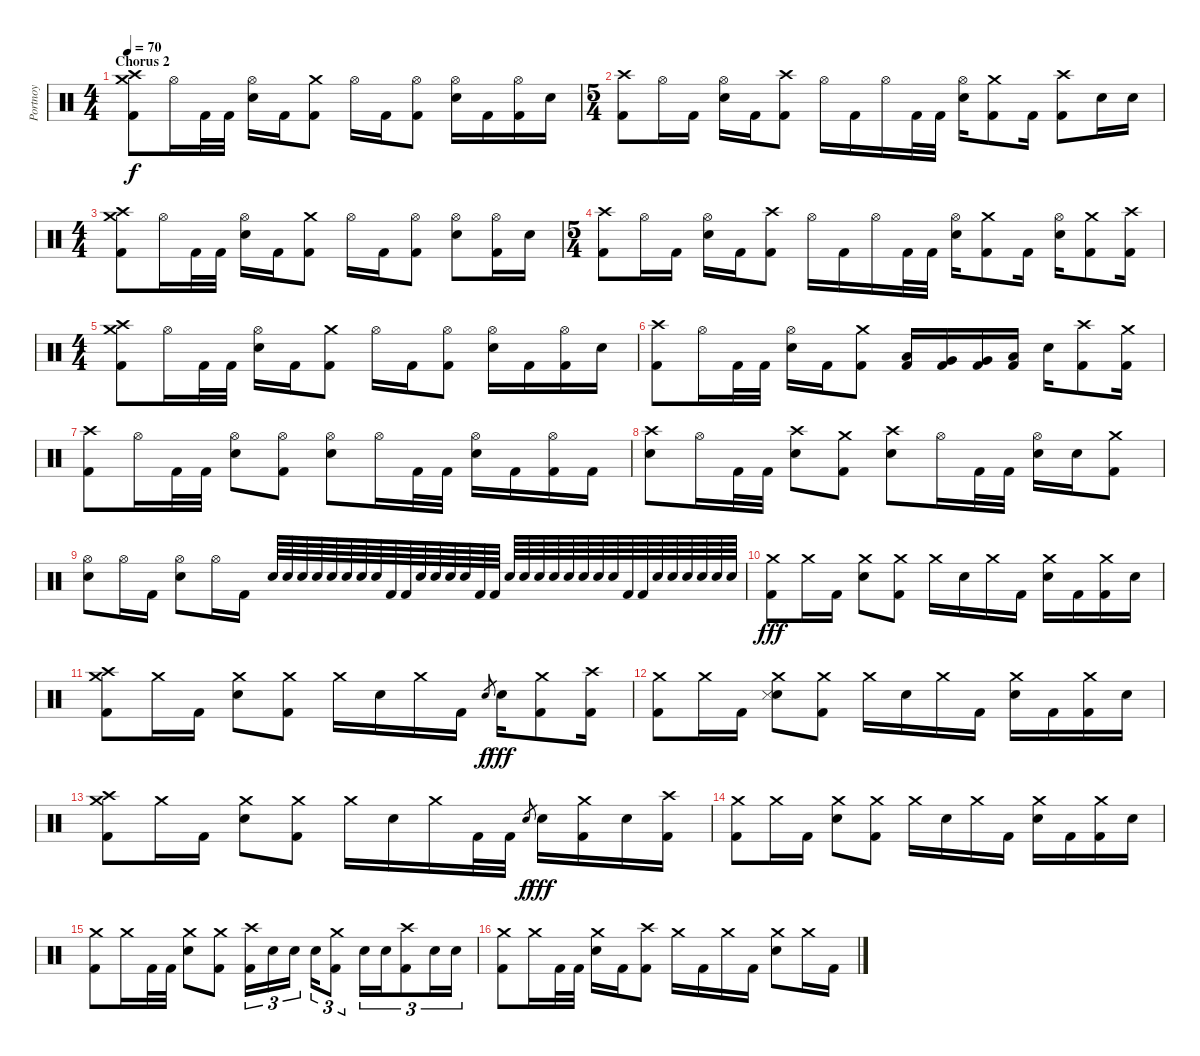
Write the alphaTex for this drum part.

\track ("Portnoy" "Portnoy") {instrument percussion}
\staff {score}
\articulation defaults
\ts (4 4)
\section ("" "Chorus 2")
\tempo 70
\clef neutral
\ks c
("Crash medium (hit)" "Crash high (hit)" "Kick (hit) 2").8{dy f} "Hi-Hat (open)".16 "Kick (hit) 2".32 "Kick (hit) 2".32 ("Hi-Hat (open)" "Snare (hit) 2").16 "Kick (hit) 2".16 ("Crash medium (hit)" "Kick (hit) 2").8 "Hi-Hat (open)".16 "Kick (hit) 2".16 ("Kick (hit) 2" "Hi-Hat (open)").8 ("Hi-Hat (open)" "Snare (hit) 2").16 "Kick (hit) 2".16 ("Kick (hit) 2" "Hi-Hat (open)").16 "Snare (hit) 2".16 |
\ts (5 4)
("Crash high (hit)" "Kick (hit) 2").8 "Hi-Hat (open)".16 "Kick (hit) 2".16 ("Hi-Hat (open)" "Snare (hit) 2").16 "Kick (hit) 2".16 ("Crash high (hit)" "Kick (hit) 2").8 "Hi-Hat (open)".16 "Kick (hit) 2".16 "Hi-Hat (open)".16 "Kick (hit) 2".32 "Kick (hit) 2".32 ("Hi-Hat (open)" "Snare (hit) 2").16 ("Kick (hit) 2" "Crash medium (hit)").8 "Kick (hit) 2".16 ("Crash high (hit)" "Kick (hit) 2").8 "Snare (hit) 2".16 "Snare (hit) 2".16 |
\ts (4 4)
("Crash medium (hit)" "Crash high (hit)" "Kick (hit) 2").8 "Hi-Hat (open)".16 "Kick (hit) 2".32 "Kick (hit) 2".32 ("Hi-Hat (open)" "Snare (hit) 2").16 "Kick (hit) 2".16 ("Crash medium (hit)" "Kick (hit) 2").8 "Hi-Hat (open)".16 "Kick (hit) 2".16 ("Kick (hit) 2" "Hi-Hat (open)").8 ("Hi-Hat (open)" "Snare (hit) 2").8 ("Kick (hit) 2" "Hi-Hat (open)").16 "Snare (hit) 2".16 |
\ts (5 4)
("Crash high (hit)" "Kick (hit) 2").8 "Hi-Hat (open)".16 "Kick (hit) 2".16 ("Hi-Hat (open)" "Snare (hit) 2").16 "Kick (hit) 2".16 ("Crash high (hit)" "Kick (hit) 2").8 "Hi-Hat (open)".16 "Kick (hit) 2".16 "Hi-Hat (open)".16 "Kick (hit) 2".32 "Kick (hit) 2".32 ("Hi-Hat (open)" "Snare (hit) 2").16 ("Kick (hit) 2" "Crash medium (hit)").8 "Kick (hit) 2".16 ("Hi-Hat (open)" "Snare (hit) 2").16 ("Kick (hit) 2" "Crash medium (hit)").8 ("Kick (hit) 2" "Crash high (hit)").16 |
\ts (4 4)
("Crash medium (hit)" "Crash high (hit)" "Kick (hit) 2").8 "Hi-Hat (open)".16 "Kick (hit) 2".32 "Kick (hit) 2".32 ("Hi-Hat (open)" "Snare (hit) 2").16 "Kick (hit) 2".16 ("Crash medium (hit)" "Kick (hit) 2").8 "Hi-Hat (open)".16 "Kick (hit) 2".16 ("Kick (hit) 2" "Hi-Hat (open)").8 ("Hi-Hat (open)" "Snare (hit) 2").16 "Kick (hit) 2".16 ("Kick (hit) 2" "Hi-Hat (open)").16 "Snare (hit) 2".16 |
("Crash high (hit)" "Kick (hit) 2").8 "Hi-Hat (open)".16 "Kick (hit) 2".32 "Kick (hit) 2".32 ("Hi-Hat (open)" "Snare (hit) 2").16 "Kick (hit) 2".16 ("Crash medium (hit)" "Kick (hit) 2").8 ("Low Tom (hit)" "Kick (hit) 2").16 ("Kick (hit) 2" "Very Low Tom (hit)").16 ("Kick (hit) 2" "Very Low Tom (hit)").16 ("Kick (hit) 2" "Low Floor Tom (hit)").16 "Snare (hit) 2".16 ("Crash high (hit)" "Kick (hit) 2").8 ("Crash medium (hit)" "Kick (hit) 2").16 |
("Crash high (hit)" "Kick (hit) 2").8 "Hi-Hat (open)".16 "Kick (hit) 2".32 "Kick (hit) 2".32 ("Hi-Hat (open)" "Snare (hit) 2").8 ("Hi-Hat (open)" "Kick (hit) 2").8 ("Hi-Hat (open)" "Snare (hit) 2").8 "Hi-Hat (open)".16 "Kick (hit) 2".32 "Kick (hit) 2".32 ("Hi-Hat (open)" "Snare (hit) 2").16 "Kick (hit) 2".16 ("Hi-Hat (open)" "Kick (hit) 2").16 "Kick (hit) 2".16 |
("Crash high (hit)" "Snare (hit) 2").8 "Hi-Hat (open)".16 "Kick (hit) 2".32 "Kick (hit) 2".32 ("Crash high (hit)" "Snare (hit) 2").8 ("Crash medium (hit)" "Kick (hit) 2").8 ("Crash high (hit)" "Snare (hit) 2").8 "Hi-Hat (open)".16 "Kick (hit) 2".32 "Kick (hit) 2".32 ("Hi-Hat (open)" "Snare (hit) 2").16 "Snare (hit) 2".16 ("Crash medium (hit)" "Kick (hit) 2").8 |
("Hi-Hat (open)" "Snare (hit) 2").8 "Hi-Hat (open)".16 "Kick (hit) 2".16 ("Hi-Hat (open)" "Snare (hit) 2").8 "Hi-Hat (open)".16 "Kick (hit) 2".16 "Snare (hit) 2".64 "Snare (hit) 2".64 "Snare (hit) 2".64 "Snare (hit) 2".64 "Snare (hit) 2".64 "Snare (hit) 2".64 "Snare (hit) 2".64 "Snare (hit) 2".64 "Kick (hit) 2".64 "Kick (hit) 2".64 "Snare (hit) 2".64 "Snare (hit) 2".64 "Snare (hit) 2".64 "Snare (hit) 2".64 "Kick (hit) 2".64 "Kick (hit) 2".64 "Snare (hit) 2".64 "Snare (hit) 2".64 "Snare (hit) 2".64 "Snare (hit) 2".64 "Snare (hit) 2".64 "Snare (hit) 2".64 "Snare (hit) 2".64 "Snare (hit) 2".64 "Kick (hit) 2".64 "Kick (hit) 2".64 "Snare (hit) 2".64 "Snare (hit) 2".64 "Snare (hit) 2".64 "Snare (hit) 2".64 "Snare (hit) 2".64 "Snare (hit) 2".64 |
("Crash medium (hit)" "Kick (hit) 2").8{dy fff} "Crash medium (hit)".16 "Kick (hit) 2".16 ("Crash medium (hit)" "Snare (hit) 2").8 ("Crash medium (hit)" "Kick (hit) 2").8 "Crash medium (hit)".16 "Snare (hit) 2".16 "Crash medium (hit)".16 "Kick (hit) 2".16 ("Crash medium (hit)" "Snare (hit) 2").16 "Kick (hit) 2".16 ("Kick (hit) 2" "Crash medium (hit)").16 "Snare (hit) 2".16 |
("Crash medium (hit)" "Kick (hit) 2" "Crash high (hit)").8 "Crash medium (hit)".16 "Kick (hit) 2".16 ("Crash medium (hit)" "Snare (hit) 2").8 ("Crash medium (hit)" "Kick (hit) 2").8 "Crash medium (hit)".16 "Snare (hit) 2".16 "Crash medium (hit)".16 "Kick (hit) 2".16 "Snare (hit) 2".8{gr dy f} "Snare (hit) 2".16{dy fff} ("Crash medium (hit)" "Kick (hit) 2").8 ("Crash high (hit)" "Kick (hit) 2").16 |
("Crash medium (hit)" "Kick (hit) 2").8 "Crash medium (hit)".16 "Kick (hit) 2".16 ("Crash medium (hit)" "Snare (hit) 2" "Snare (side stick) 3").8 ("Crash medium (hit)" "Kick (hit) 2").8 "Crash medium (hit)".16 "Snare (hit) 2".16 "Crash medium (hit)".16 "Kick (hit) 2".16 ("Crash medium (hit)" "Snare (hit) 2").16 "Kick (hit) 2".16 ("Kick (hit) 2" "Crash medium (hit)").16 "Snare (hit) 2".16 |
("Crash medium (hit)" "Kick (hit) 2" "Crash high (hit)").8 "Crash medium (hit)".16 "Kick (hit) 2".16 ("Crash medium (hit)" "Snare (hit) 2").8 ("Crash medium (hit)" "Kick (hit) 2").8 "Crash medium (hit)".16 "Snare (hit) 2".16 "Crash medium (hit)".16 "Kick (hit) 2".32 "Kick (hit) 2".32 "Snare (hit) 2".8{gr dy f} "Snare (hit) 2".16{dy fff} ("Crash medium (hit)" "Kick (hit) 2").16 "Snare (hit) 2".16 ("Crash high (hit)" "Kick (hit) 2").16 |
("Crash medium (hit)" "Kick (hit) 2").8 "Crash medium (hit)".16 "Kick (hit) 2".16 ("Crash medium (hit)" "Snare (hit) 2").8 ("Crash medium (hit)" "Kick (hit) 2").8 "Crash medium (hit)".16 "Snare (hit) 2".16 "Crash medium (hit)".16 "Kick (hit) 2".16 ("Crash medium (hit)" "Snare (hit) 2").16 "Kick (hit) 2".16 ("Kick (hit) 2" "Crash medium (hit)").16 "Snare (hit) 2".16 |
("Crash medium (hit)" "Kick (hit) 2").8 "Crash medium (hit)".16 "Kick (hit) 2".32 "Kick (hit) 2".32 ("Crash medium (hit)" "Snare (hit) 2").8 ("Crash medium (hit)" "Kick (hit) 2").8 ("Crash high (hit)" "Kick (hit) 2").16{tu (3 2)} "Snare (hit) 2".16{tu (3 2)} "Snare (hit) 2".16{tu (3 2) beam splitsecondary} "Snare (hit) 2".16{tu (3 2)} ("Crash medium (hit)" "Kick (hit) 2").8{tu (3 2)} "Snare (hit) 2".16{tu (3 2)} "Snare (hit) 2".16{tu (3 2)} ("Crash high (hit)" "Kick (hit) 2").8{tu (3 2)} "Snare (hit) 2".16{tu (3 2)} "Snare (hit) 2".16{tu (3 2)} |
("Crash medium (hit)" "Kick (hit) 2").8 "Crash medium (hit)".16 "Kick (hit) 2".32 "Kick (hit) 2".32 ("Crash medium (hit)" "Snare (hit) 2").16 "Kick (hit) 2".16 ("Crash high (hit)" "Kick (hit) 2").8 "Crash medium (hit)".16 "Kick (hit) 2".16 "Crash medium (hit)".16 "Kick (hit) 2".16 ("Crash medium (hit)" "Snare (hit) 2").8 "Crash medium (hit)".16 "Kick (hit) 2".16
